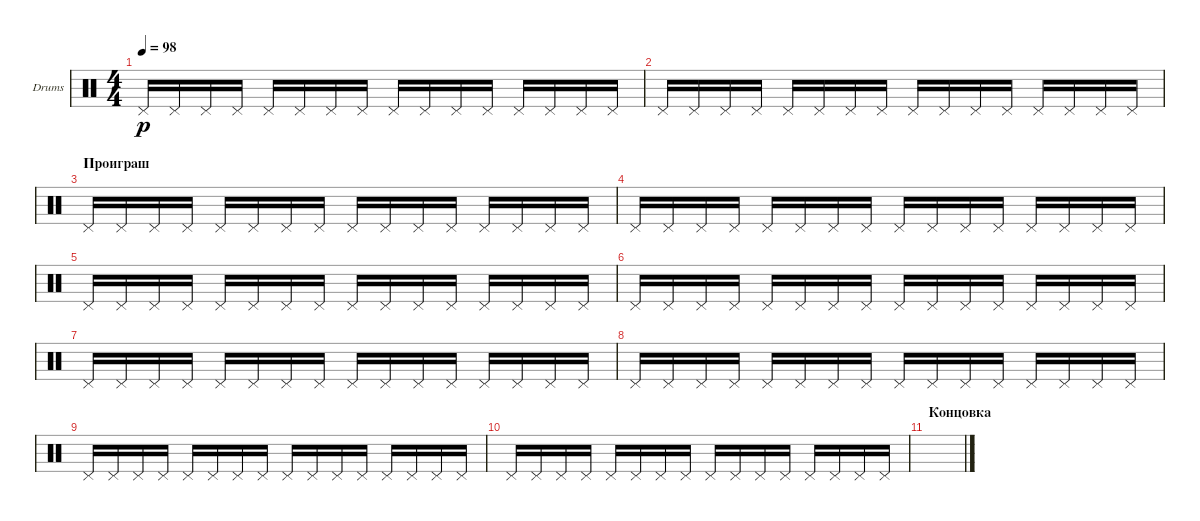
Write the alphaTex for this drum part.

\defaultSystemsLayout 4
\bracketExtendMode groupsimilarinstruments
\firstSystemTrackNameOrientation horizontal
\otherSystemsTrackNameOrientation horizontal
\track ("Е. Кулаков" "Drums") {instrument percussion}
\staff {score}
\articulation defaults
\ts (4 4)
\tempo 98
\clef neutral
\ks c "Pedal Hi-Hat (hit)".16{dy p} "Pedal Hi-Hat (hit)".16 "Pedal Hi-Hat (hit)".16 "Pedal Hi-Hat (hit)".16 "Pedal Hi-Hat (hit)".16 "Pedal Hi-Hat (hit)".16 "Pedal Hi-Hat (hit)".16 "Pedal Hi-Hat (hit)".16 "Pedal Hi-Hat (hit)".16 "Pedal Hi-Hat (hit)".16 "Pedal Hi-Hat (hit)".16 "Pedal Hi-Hat (hit)".16 "Pedal Hi-Hat (hit)".16 "Pedal Hi-Hat (hit)".16 "Pedal Hi-Hat (hit)".16 "Pedal Hi-Hat (hit)".16
|
"Pedal Hi-Hat (hit)".16 "Pedal Hi-Hat (hit)".16 "Pedal Hi-Hat (hit)".16 "Pedal Hi-Hat (hit)".16 "Pedal Hi-Hat (hit)".16 "Pedal Hi-Hat (hit)".16 "Pedal Hi-Hat (hit)".16 "Pedal Hi-Hat (hit)".16 "Pedal Hi-Hat (hit)".16 "Pedal Hi-Hat (hit)".16 "Pedal Hi-Hat (hit)".16 "Pedal Hi-Hat (hit)".16 "Pedal Hi-Hat (hit)".16 "Pedal Hi-Hat (hit)".16 "Pedal Hi-Hat (hit)".16 "Pedal Hi-Hat (hit)".16 |
\section ("" "Проиграш")
"Pedal Hi-Hat (hit)".16 "Pedal Hi-Hat (hit)".16 "Pedal Hi-Hat (hit)".16 "Pedal Hi-Hat (hit)".16 "Pedal Hi-Hat (hit)".16 "Pedal Hi-Hat (hit)".16 "Pedal Hi-Hat (hit)".16 "Pedal Hi-Hat (hit)".16 "Pedal Hi-Hat (hit)".16 "Pedal Hi-Hat (hit)".16 "Pedal Hi-Hat (hit)".16 "Pedal Hi-Hat (hit)".16 "Pedal Hi-Hat (hit)".16 "Pedal Hi-Hat (hit)".16 "Pedal Hi-Hat (hit)".16 "Pedal Hi-Hat (hit)".16 |
"Pedal Hi-Hat (hit)".16 "Pedal Hi-Hat (hit)".16 "Pedal Hi-Hat (hit)".16 "Pedal Hi-Hat (hit)".16 "Pedal Hi-Hat (hit)".16 "Pedal Hi-Hat (hit)".16 "Pedal Hi-Hat (hit)".16 "Pedal Hi-Hat (hit)".16 "Pedal Hi-Hat (hit)".16 "Pedal Hi-Hat (hit)".16 "Pedal Hi-Hat (hit)".16 "Pedal Hi-Hat (hit)".16 "Pedal Hi-Hat (hit)".16 "Pedal Hi-Hat (hit)".16 "Pedal Hi-Hat (hit)".16 "Pedal Hi-Hat (hit)".16 |
"Pedal Hi-Hat (hit)".16 "Pedal Hi-Hat (hit)".16 "Pedal Hi-Hat (hit)".16 "Pedal Hi-Hat (hit)".16 "Pedal Hi-Hat (hit)".16 "Pedal Hi-Hat (hit)".16 "Pedal Hi-Hat (hit)".16 "Pedal Hi-Hat (hit)".16 "Pedal Hi-Hat (hit)".16 "Pedal Hi-Hat (hit)".16 "Pedal Hi-Hat (hit)".16 "Pedal Hi-Hat (hit)".16 "Pedal Hi-Hat (hit)".16 "Pedal Hi-Hat (hit)".16 "Pedal Hi-Hat (hit)".16 "Pedal Hi-Hat (hit)".16 |
"Pedal Hi-Hat (hit)".16 "Pedal Hi-Hat (hit)".16 "Pedal Hi-Hat (hit)".16 "Pedal Hi-Hat (hit)".16 "Pedal Hi-Hat (hit)".16 "Pedal Hi-Hat (hit)".16 "Pedal Hi-Hat (hit)".16 "Pedal Hi-Hat (hit)".16 "Pedal Hi-Hat (hit)".16 "Pedal Hi-Hat (hit)".16 "Pedal Hi-Hat (hit)".16 "Pedal Hi-Hat (hit)".16 "Pedal Hi-Hat (hit)".16 "Pedal Hi-Hat (hit)".16 "Pedal Hi-Hat (hit)".16 "Pedal Hi-Hat (hit)".16 |
"Pedal Hi-Hat (hit)".16 "Pedal Hi-Hat (hit)".16 "Pedal Hi-Hat (hit)".16 "Pedal Hi-Hat (hit)".16 "Pedal Hi-Hat (hit)".16 "Pedal Hi-Hat (hit)".16 "Pedal Hi-Hat (hit)".16 "Pedal Hi-Hat (hit)".16 "Pedal Hi-Hat (hit)".16 "Pedal Hi-Hat (hit)".16 "Pedal Hi-Hat (hit)".16 "Pedal Hi-Hat (hit)".16 "Pedal Hi-Hat (hit)".16 "Pedal Hi-Hat (hit)".16 "Pedal Hi-Hat (hit)".16 "Pedal Hi-Hat (hit)".16 |
"Pedal Hi-Hat (hit)".16 "Pedal Hi-Hat (hit)".16 "Pedal Hi-Hat (hit)".16 "Pedal Hi-Hat (hit)".16 "Pedal Hi-Hat (hit)".16 "Pedal Hi-Hat (hit)".16 "Pedal Hi-Hat (hit)".16 "Pedal Hi-Hat (hit)".16 "Pedal Hi-Hat (hit)".16 "Pedal Hi-Hat (hit)".16 "Pedal Hi-Hat (hit)".16 "Pedal Hi-Hat (hit)".16 "Pedal Hi-Hat (hit)".16 "Pedal Hi-Hat (hit)".16 "Pedal Hi-Hat (hit)".16 "Pedal Hi-Hat (hit)".16 |
"Pedal Hi-Hat (hit)".16 "Pedal Hi-Hat (hit)".16 "Pedal Hi-Hat (hit)".16 "Pedal Hi-Hat (hit)".16 "Pedal Hi-Hat (hit)".16 "Pedal Hi-Hat (hit)".16 "Pedal Hi-Hat (hit)".16 "Pedal Hi-Hat (hit)".16 "Pedal Hi-Hat (hit)".16 "Pedal Hi-Hat (hit)".16 "Pedal Hi-Hat (hit)".16 "Pedal Hi-Hat (hit)".16 "Pedal Hi-Hat (hit)".16 "Pedal Hi-Hat (hit)".16 "Pedal Hi-Hat (hit)".16 "Pedal Hi-Hat (hit)".16 |
"Pedal Hi-Hat (hit)".16 "Pedal Hi-Hat (hit)".16 "Pedal Hi-Hat (hit)".16 "Pedal Hi-Hat (hit)".16 "Pedal Hi-Hat (hit)".16 "Pedal Hi-Hat (hit)".16 "Pedal Hi-Hat (hit)".16 "Pedal Hi-Hat (hit)".16 "Pedal Hi-Hat (hit)".16 "Pedal Hi-Hat (hit)".16 "Pedal Hi-Hat (hit)".16 "Pedal Hi-Hat (hit)".16 "Pedal Hi-Hat (hit)".16 "Pedal Hi-Hat (hit)".16 "Pedal Hi-Hat (hit)".16 "Pedal Hi-Hat (hit)".16 |
\section ("" "Концовка")
